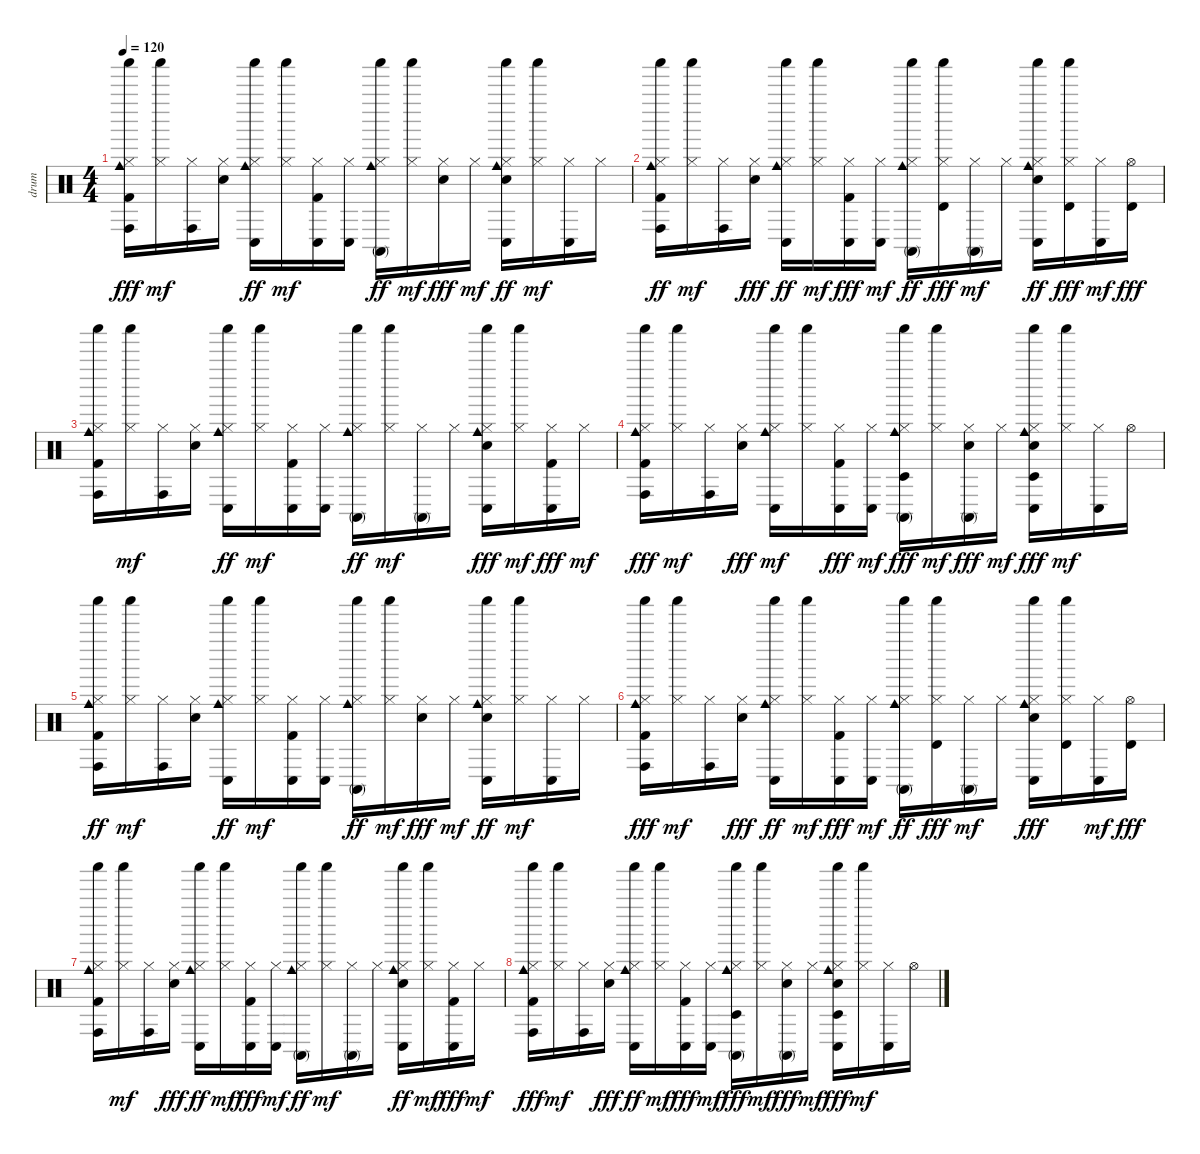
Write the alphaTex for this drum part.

\track ("drum" "drum") {instrument percussion}
\staff {score}
\articulation defaults
\ts (4 4)
\tempo 120
\clef neutral
\ks c
("Conga high (hit)" "Shaker (hit)" "Cowbell medium (hit)" "Hi-Hat (closed)" "Kick (hit) 2").16{dy fff} ("Shaker (hit)" "Hi-Hat (closed)").16{dy mf} ("Conga high (hit)" "Hi-Hat (closed)").16 ("Electric Snare (hit)" "Hi-Hat (closed)").16 ("Conga low (hit)" "Cowbell medium (hit)" "Shaker (hit)" "Hi-Hat (closed)").16{dy ff} ("Shaker (hit)" "Hi-Hat (closed)").16{dy mf} ("Conga low (hit)" "Kick (hit) 2" "Hi-Hat (closed)").16 ("Conga low (hit)" "Hi-Hat (closed)").16 ("Conga high (mute)" "Cowbell medium (hit)" "Shaker (hit)" "Hi-Hat (closed)").16{dy ff} ("Shaker (hit)" "Hi-Hat (closed)").16{dy mf} ("Hi-Hat (closed)" "Electric Snare (hit)").16{dy fff} "Hi-Hat (closed)".16{dy mf} ("Conga low (hit)" "Shaker (hit)" "Cowbell medium (hit)" "Electric Snare (hit)" "Hi-Hat (closed)").16{dy ff} ("Shaker (hit)" "Hi-Hat (closed)").16{dy mf} ("Conga low (hit)" "Hi-Hat (closed)").16 "Hi-Hat (closed)".16 |
("Conga high (hit)" "Shaker (hit)" "Cowbell medium (hit)" "Kick (hit) 2" "Hi-Hat (closed)").16{dy ff} ("Shaker (hit)" "Hi-Hat (closed)").16{dy mf} ("Conga high (hit)" "Hi-Hat (closed)").16 ("Hi-Hat (closed)" "Electric Snare (hit)").16{dy fff} ("Conga low (hit)" "Cowbell medium (hit)" "Shaker (hit)" "Hi-Hat (closed)").16{dy ff} ("Shaker (hit)" "Hi-Hat (closed)").16{dy mf} ("Hi-Hat (closed)" "Conga low (hit)" "Kick (hit) 2").16{dy fff} ("Conga low (hit)" "Hi-Hat (closed)").16{dy mf} ("Conga high (mute)" "Cowbell medium (hit)" "Shaker (hit)" "Hi-Hat (closed)").16{dy ff} ("Shaker (hit)" "Hi-Hat (closed)" "Timbale high (hit)").16{dy fff} ("Conga high (mute)" "Hi-Hat (closed)").16{dy mf} "Hi-Hat (closed)".16 ("Conga low (hit)" "Shaker (hit)" "Cowbell medium (hit)" "Electric Snare (hit)" "Hi-Hat (closed)").16{dy ff} ("Shaker (hit)" "Hi-Hat (closed)" "Timbale high (hit)").16{dy fff} ("Conga low (hit)" "Hi-Hat (closed)").16{dy mf} ("Hi-Hat (open)" "Timbale high (hit)").16{dy fff} |
("Conga high (hit)" "Shaker (hit)" "Cowbell medium (hit)" "Hi-Hat (closed)" "Kick (hit) 2").16 ("Shaker (hit)" "Hi-Hat (closed)").16{dy mf} ("Conga high (hit)" "Hi-Hat (closed)").16 ("Electric Snare (hit)" "Hi-Hat (closed)").16 ("Conga low (hit)" "Cowbell medium (hit)" "Shaker (hit)" "Hi-Hat (closed)").16{dy ff} ("Shaker (hit)" "Hi-Hat (closed)").16{dy mf} ("Conga low (hit)" "Kick (hit) 2" "Hi-Hat (closed)").16 ("Conga low (hit)" "Hi-Hat (closed)").16 ("Conga high (mute)" "Cowbell medium (hit)" "Shaker (hit)" "Hi-Hat (closed)").16{dy ff} ("Shaker (hit)" "Hi-Hat (closed)").16{dy mf} ("Conga high (mute)" "Hi-Hat (closed)").16 "Hi-Hat (closed)".16 ("Conga low (hit)" "Cowbell medium (hit)" "Shaker (hit)" "Hi-Hat (closed)" "Electric Snare (hit)").16{dy fff} ("Shaker (hit)" "Hi-Hat (closed)").16{dy mf} ("Conga low (hit)" "Hi-Hat (closed)" "Kick (hit) 2").16{dy fff} "Hi-Hat (closed)".16{dy mf} |
("Conga high (hit)" "Cowbell medium (hit)" "Shaker (hit)" "Hi-Hat (closed)" "Kick (hit) 2").16{dy fff} ("Shaker (hit)" "Hi-Hat (closed)").16{dy mf} ("Hi-Hat (closed)" "Conga high (hit)").16 ("Hi-Hat (closed)" "Electric Snare (hit)").16{dy fff} ("Conga low (hit)" "Cowbell medium (hit)" "Hi-Hat (closed)" "Shaker (hit)").16{dy mf} ("Shaker (hit)" "Hi-Hat (closed)").16 ("Conga low (hit)" "Hi-Hat (closed)" "Kick (hit) 2").16{dy fff} ("Conga low (hit)" "Hi-Hat (closed)").16{dy mf} ("Conga high (mute)" "Cowbell medium (hit)" "Shaker (hit)" "Hi-Hat (closed)" "Timbale low (hit)").16{dy fff} ("Shaker (hit)" "Hi-Hat (closed)").16{dy mf} ("Hi-Hat (closed)" "Conga high (mute)" "Electric Snare (hit)").16{dy fff} "Hi-Hat (closed)".16{dy mf} ("Conga low (hit)" "Hi-Hat (closed)" "Shaker (hit)" "Cowbell medium (hit)" "Electric Snare (hit)" "Timbale low (hit)").16{dy fff} ("Hi-Hat (closed)" "Shaker (hit)").16{dy mf} ("Conga low (hit)" "Hi-Hat (closed)").16 "Hi-Hat (open)".16 |
("Conga high (hit)" "Shaker (hit)" "Cowbell medium (hit)" "Kick (hit) 2" "Hi-Hat (closed)").16{dy ff} ("Shaker (hit)" "Hi-Hat (closed)").16{dy mf} ("Conga high (hit)" "Hi-Hat (closed)").16 ("Electric Snare (hit)" "Hi-Hat (closed)").16 ("Conga low (hit)" "Shaker (hit)" "Cowbell medium (hit)" "Hi-Hat (closed)").16{dy ff} ("Shaker (hit)" "Hi-Hat (closed)").16{dy mf} ("Conga low (hit)" "Kick (hit) 2" "Hi-Hat (closed)").16 ("Conga low (hit)" "Hi-Hat (closed)").16 ("Conga high (mute)" "Cowbell medium (hit)" "Shaker (hit)" "Hi-Hat (closed)").16{dy ff} ("Shaker (hit)" "Hi-Hat (closed)").16{dy mf} ("Hi-Hat (closed)" "Electric Snare (hit)").16{dy fff} "Hi-Hat (closed)".16{dy mf} ("Conga low (hit)" "Shaker (hit)" "Cowbell medium (hit)" "Electric Snare (hit)" "Hi-Hat (closed)").16{dy ff} ("Shaker (hit)" "Hi-Hat (closed)").16{dy mf} ("Conga low (hit)" "Hi-Hat (closed)").16 "Hi-Hat (closed)".16 |
("Conga high (hit)" "Shaker (hit)" "Cowbell medium (hit)" "Hi-Hat (closed)" "Kick (hit) 2").16{dy fff} ("Shaker (hit)" "Hi-Hat (closed)").16{dy mf} ("Conga high (hit)" "Hi-Hat (closed)").16 ("Hi-Hat (closed)" "Electric Snare (hit)").16{dy fff} ("Conga low (hit)" "Cowbell medium (hit)" "Shaker (hit)" "Hi-Hat (closed)").16{dy ff} ("Shaker (hit)" "Hi-Hat (closed)").16{dy mf} ("Conga low (hit)" "Hi-Hat (closed)" "Kick (hit) 2").16{dy fff} ("Conga low (hit)" "Hi-Hat (closed)").16{dy mf} ("Conga high (mute)" "Cowbell medium (hit)" "Shaker (hit)" "Hi-Hat (closed)").16{dy ff} ("Shaker (hit)" "Hi-Hat (closed)" "Timbale high (hit)").16{dy fff} ("Conga high (mute)" "Hi-Hat (closed)").16{dy mf} "Hi-Hat (closed)".16 ("Conga low (hit)" "Cowbell medium (hit)" "Shaker (hit)" "Hi-Hat (closed)" "Electric Snare (hit)").16{dy fff} ("Shaker (hit)" "Hi-Hat (closed)" "Timbale high (hit)").16 ("Conga low (hit)" "Hi-Hat (closed)").16{dy mf} ("Hi-Hat (open)" "Timbale high (hit)").16{dy fff} |
("Conga high (hit)" "Shaker (hit)" "Cowbell medium (hit)" "Hi-Hat (closed)" "Kick (hit) 2").16 ("Shaker (hit)" "Hi-Hat (closed)").16{dy mf} ("Conga high (hit)" "Hi-Hat (closed)").16 ("Hi-Hat (closed)" "Electric Snare (hit)").16{dy fff} ("Conga low (hit)" "Cowbell medium (hit)" "Shaker (hit)" "Hi-Hat (closed)").16{dy ff} ("Shaker (hit)" "Hi-Hat (closed)").16{dy mf} ("Conga low (hit)" "Hi-Hat (closed)" "Kick (hit) 2").16{dy fff} ("Conga low (hit)" "Hi-Hat (closed)").16{dy mf} ("Conga high (mute)" "Cowbell medium (hit)" "Shaker (hit)" "Hi-Hat (closed)").16{dy ff} ("Shaker (hit)" "Hi-Hat (closed)").16{dy mf} ("Conga high (mute)" "Hi-Hat (closed)").16 "Hi-Hat (closed)".16 ("Conga low (hit)" "Cowbell medium (hit)" "Shaker (hit)" "Electric Snare (hit)" "Hi-Hat (closed)").16{dy ff} ("Shaker (hit)" "Hi-Hat (closed)").16{dy mf} ("Conga low (hit)" "Hi-Hat (closed)" "Kick (hit) 2").16{dy fff} "Hi-Hat (closed)".16{dy mf} |
("Conga high (hit)" "Cowbell medium (hit)" "Shaker (hit)" "Hi-Hat (closed)" "Kick (hit) 2").16{dy fff} ("Shaker (hit)" "Hi-Hat (closed)").16{dy mf} ("Conga high (hit)" "Hi-Hat (closed)").16 ("Hi-Hat (closed)" "Electric Snare (hit)").16{dy fff} ("Conga low (hit)" "Cowbell medium (hit)" "Shaker (hit)" "Hi-Hat (closed)").16{dy ff} ("Shaker (hit)" "Hi-Hat (closed)").16{dy mf} ("Conga low (hit)" "Hi-Hat (closed)" "Kick (hit) 2").16{dy fff} ("Conga low (hit)" "Hi-Hat (closed)").16{dy mf} ("Conga high (mute)" "Cowbell medium (hit)" "Shaker (hit)" "Hi-Hat (closed)" "Timbale low (hit)").16{dy fff} ("Shaker (hit)" "Hi-Hat (closed)").16{dy mf} ("Conga high (mute)" "Hi-Hat (closed)" "Electric Snare (hit)").16{dy fff} "Hi-Hat (closed)".16{dy mf} ("Conga low (hit)" "Hi-Hat (closed)" "Shaker (hit)" "Cowbell medium (hit)" "Electric Snare (hit)" "Timbale low (hit)").16{dy fff} ("Shaker (hit)" "Hi-Hat (closed)").16{dy mf} ("Conga low (hit)" "Hi-Hat (closed)").16 "Hi-Hat (open)".16
